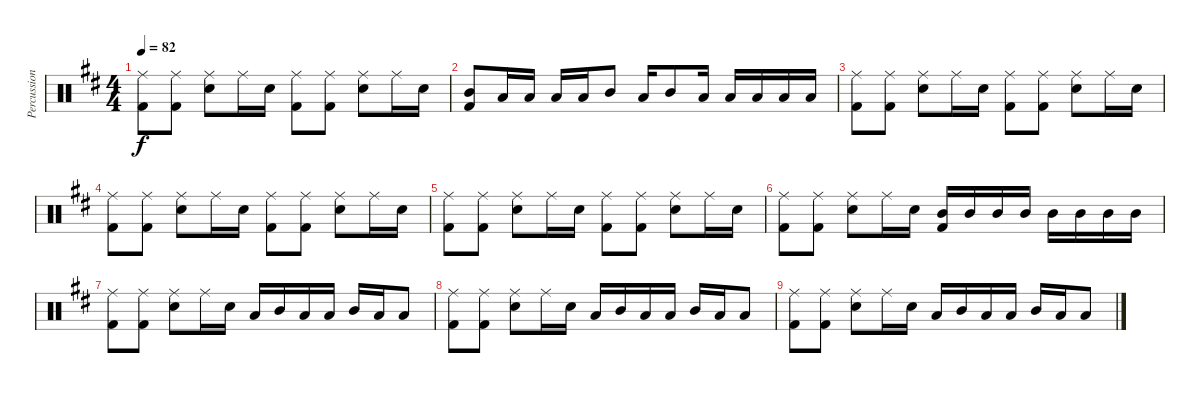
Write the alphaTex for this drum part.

\track ("Percussion" "Percussion") {instrument percussion}
\staff {score}
\articulation defaults
\ts (4 4)
\tempo 82
\clef neutral
\ks d
("Ride (middle)" "Kick (hit) 2").8{dy f} ("Ride (middle)" "Kick (hit) 2").8 ("Ride (middle)" "Snare (hit) 2").8 "Ride (middle)".16 "Snare (hit) 2".16 ("Ride (middle)" "Kick (hit) 2").8 ("Ride (middle)" "Kick (hit) 2").8 ("Ride (middle)" "Snare (hit) 2").8 "Ride (middle)".16 "Snare (hit) 2".16 |
("Mid Tom (hit)" "Kick (hit) 2").8 "Low Floor Tom (hit)".16 "Low Floor Tom (hit)".16 "Low Floor Tom (hit)".16 "Low Floor Tom (hit)".16 "Mid Tom (hit)".8 "Low Floor Tom (hit)".16 "Mid Tom (hit)".8 "Low Floor Tom (hit)".16 "Low Floor Tom (hit)".16 "Low Floor Tom (hit)".16 "Low Floor Tom (hit)".16 "Low Floor Tom (hit)".16 |
("Ride (middle)" "Kick (hit) 2").8 ("Ride (middle)" "Kick (hit) 2").8 ("Ride (middle)" "Snare (hit) 2").8 "Ride (middle)".16 "Snare (hit) 2".16 ("Ride (middle)" "Kick (hit) 2").8 ("Ride (middle)" "Kick (hit) 2").8 ("Ride (middle)" "Snare (hit) 2").8 "Ride (middle)".16 "Snare (hit) 2".16 |
("Ride (middle)" "Kick (hit) 2").8 ("Ride (middle)" "Kick (hit) 2").8 ("Ride (middle)" "Snare (hit) 2").8 "Ride (middle)".16 "Snare (hit) 2".16 ("Ride (middle)" "Kick (hit) 2").8 ("Ride (middle)" "Kick (hit) 2").8 ("Ride (middle)" "Snare (hit) 2").8 "Ride (middle)".16 "Snare (hit) 2".16 |
("Ride (middle)" "Kick (hit) 2").8 ("Ride (middle)" "Kick (hit) 2").8 ("Ride (middle)" "Snare (hit) 2").8 "Ride (middle)".16 "Snare (hit) 2".16 ("Ride (middle)" "Kick (hit) 2").8 ("Ride (middle)" "Kick (hit) 2").8 ("Ride (middle)" "Snare (hit) 2").8 "Ride (middle)".16 "Snare (hit) 2".16 |
("Ride (middle)" "Kick (hit) 2").8 ("Ride (middle)" "Kick (hit) 2").8 ("Ride (middle)" "Snare (hit) 2").8 "Ride (middle)".16 "Snare (hit) 2".16 ("Mid Tom (hit)" "Kick (hit) 2").16 "Mid Tom (hit)".16 "Mid Tom (hit)".16 "Mid Tom (hit)".16 "Mid Tom (hit)".16 "Mid Tom (hit)".16 "Mid Tom (hit)".16 "Mid Tom (hit)".16 |
("Ride (middle)" "Kick (hit) 2").8 ("Ride (middle)" "Kick (hit) 2").8 ("Ride (middle)" "Snare (hit) 2").8 "Ride (middle)".16 "Snare (hit) 2".16 "Low Floor Tom (hit)".16 "Mid Tom (hit)".16 "Low Floor Tom (hit)".16 "Low Floor Tom (hit)".16 "Mid Tom (hit)".16 "Low Floor Tom (hit)".16 "Low Floor Tom (hit)".8 |
("Ride (middle)" "Kick (hit) 2").8 ("Ride (middle)" "Kick (hit) 2").8 ("Ride (middle)" "Snare (hit) 2").8 "Ride (middle)".16 "Snare (hit) 2".16 "Low Floor Tom (hit)".16 "Mid Tom (hit)".16 "Low Floor Tom (hit)".16 "Low Floor Tom (hit)".16 "Mid Tom (hit)".16 "Low Floor Tom (hit)".16 "Low Floor Tom (hit)".8 |
("Ride (middle)" "Kick (hit) 2").8 ("Ride (middle)" "Kick (hit) 2").8 ("Ride (middle)" "Snare (hit) 2").8 "Ride (middle)".16 "Snare (hit) 2".16 "Low Floor Tom (hit)".16 "Mid Tom (hit)".16 "Low Floor Tom (hit)".16 "Low Floor Tom (hit)".16 "Mid Tom (hit)".16 "Low Floor Tom (hit)".16 "Low Floor Tom (hit)".8
